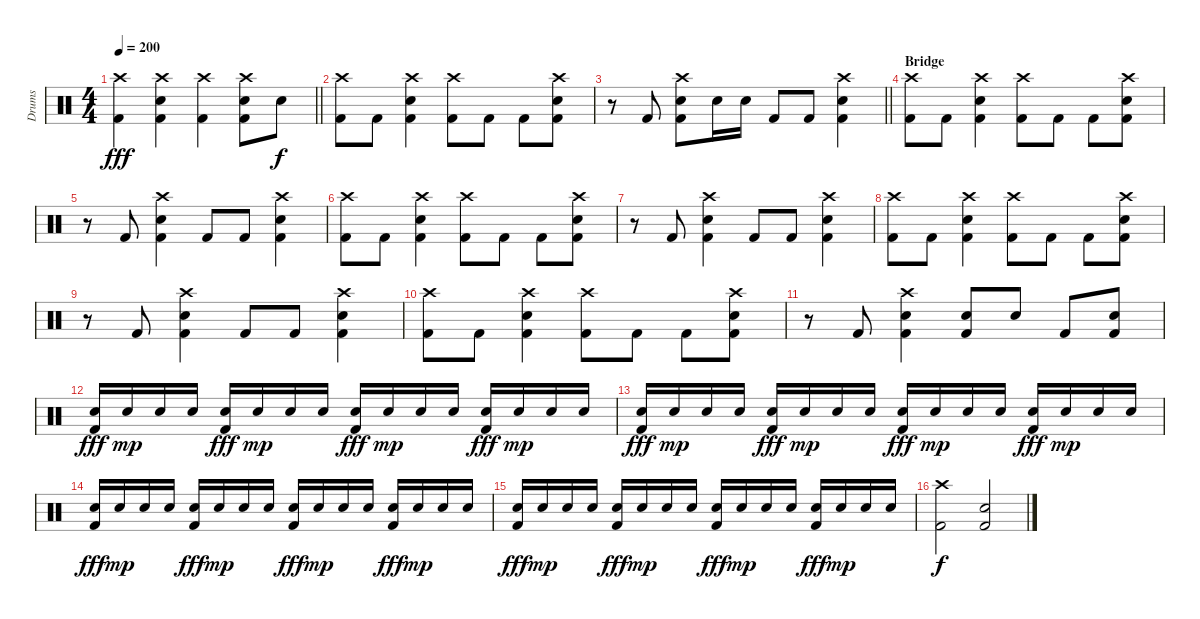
\track ("Drums" "Drums") {instrument percussion}
\staff {score}
\articulation defaults
\ts (4 4)
\tempo 200
\clef neutral
\barLineRight lightlight
\ks c
("Crash high (hit)" "Kick (hit) 2").4{dy fff} ("Crash high (hit)" "Snare (hit) 2" "Kick (hit) 2").4 ("Crash high (hit)" "Kick (hit) 2").4 ("Crash high (hit)" "Snare (hit) 2" "Kick (hit) 2").8 "Snare (hit) 2".8{dy f} |
("Crash high (hit)" "Kick (hit) 2").8 "Kick (hit) 2".8 ("Crash high (hit)" "Snare (hit) 2" "Kick (hit) 2").4 ("Crash high (hit)" "Kick (hit) 2").8 "Kick (hit) 2".8 "Kick (hit) 2".8 ("Crash high (hit)" "Snare (hit) 2" "Kick (hit) 2").8 |
\barLineRight lightlight
r.8 "Kick (hit) 2".8 ("Crash high (hit)" "Snare (hit) 2" "Kick (hit) 2").8 "Snare (hit) 2".16 "Snare (hit) 2".16 "Kick (hit) 2".8 "Kick (hit) 2".8 ("Crash high (hit)" "Snare (hit) 2" "Kick (hit) 2").4 |
\section ("" "Bridge")
("Crash high (hit)" "Kick (hit) 2").8 "Kick (hit) 2".8 ("Crash high (hit)" "Snare (hit) 2" "Kick (hit) 2").4 ("Crash high (hit)" "Kick (hit) 2").8 "Kick (hit) 2".8 "Kick (hit) 2".8 ("Crash high (hit)" "Snare (hit) 2" "Kick (hit) 2").8 |
r.8 "Kick (hit) 2".8 ("Crash high (hit)" "Snare (hit) 2" "Kick (hit) 2").4 "Kick (hit) 2".8 "Kick (hit) 2".8 ("Crash high (hit)" "Snare (hit) 2" "Kick (hit) 2").4 |
("Crash high (hit)" "Kick (hit) 2").8 "Kick (hit) 2".8 ("Crash high (hit)" "Snare (hit) 2" "Kick (hit) 2").4 ("Crash high (hit)" "Kick (hit) 2").8 "Kick (hit) 2".8 "Kick (hit) 2".8 ("Crash high (hit)" "Snare (hit) 2" "Kick (hit) 2").8 |
r.8 "Kick (hit) 2".8 ("Crash high (hit)" "Snare (hit) 2" "Kick (hit) 2").4 "Kick (hit) 2".8 "Kick (hit) 2".8 ("Crash high (hit)" "Snare (hit) 2" "Kick (hit) 2").4 |
("Crash high (hit)" "Kick (hit) 2").8 "Kick (hit) 2".8 ("Crash high (hit)" "Snare (hit) 2" "Kick (hit) 2").4 ("Crash high (hit)" "Kick (hit) 2").8 "Kick (hit) 2".8 "Kick (hit) 2".8 ("Crash high (hit)" "Snare (hit) 2" "Kick (hit) 2").8 |
r.8 "Kick (hit) 2".8 ("Crash high (hit)" "Snare (hit) 2" "Kick (hit) 2").4 "Kick (hit) 2".8 "Kick (hit) 2".8 ("Crash high (hit)" "Snare (hit) 2" "Kick (hit) 2").4 |
("Crash high (hit)" "Kick (hit) 2").8 "Kick (hit) 2".8 ("Crash high (hit)" "Snare (hit) 2" "Kick (hit) 2").4 ("Crash high (hit)" "Kick (hit) 2").8 "Kick (hit) 2".8 "Kick (hit) 2".8 ("Crash high (hit)" "Snare (hit) 2" "Kick (hit) 2").8 |
r.8 "Kick (hit) 2".8 ("Crash high (hit)" "Snare (hit) 2" "Kick (hit) 2").4 ("Snare (hit) 2" "Kick (hit) 2").8 "Snare (hit) 2".8 "Kick (hit) 2".8 ("Snare (hit) 2" "Kick (hit) 2").8 |
("Snare (hit) 2" "Kick (hit) 2").16{dy fff} "Snare (hit) 2".16{dy mp} "Snare (hit) 2".16 "Snare (hit) 2".16 ("Snare (hit) 2" "Kick (hit) 2").16{dy fff} "Snare (hit) 2".16{dy mp} "Snare (hit) 2".16 "Snare (hit) 2".16 ("Snare (hit) 2" "Kick (hit) 2").16{dy fff} "Snare (hit) 2".16{dy mp} "Snare (hit) 2".16 "Snare (hit) 2".16 ("Snare (hit) 2" "Kick (hit) 2").16{dy fff} "Snare (hit) 2".16{dy mp} "Snare (hit) 2".16 "Snare (hit) 2".16 |
("Snare (hit) 2" "Kick (hit) 2").16{dy fff} "Snare (hit) 2".16{dy mp} "Snare (hit) 2".16 "Snare (hit) 2".16 ("Snare (hit) 2" "Kick (hit) 2").16{dy fff} "Snare (hit) 2".16{dy mp} "Snare (hit) 2".16 "Snare (hit) 2".16 ("Snare (hit) 2" "Kick (hit) 2").16{dy fff} "Snare (hit) 2".16{dy mp} "Snare (hit) 2".16 "Snare (hit) 2".16 ("Snare (hit) 2" "Kick (hit) 2").16{dy fff} "Snare (hit) 2".16{dy mp} "Snare (hit) 2".16 "Snare (hit) 2".16 |
("Snare (hit) 2" "Kick (hit) 2").16{dy fff} "Snare (hit) 2".16{dy mp} "Snare (hit) 2".16 "Snare (hit) 2".16 ("Snare (hit) 2" "Kick (hit) 2").16{dy fff} "Snare (hit) 2".16{dy mp} "Snare (hit) 2".16 "Snare (hit) 2".16 ("Snare (hit) 2" "Kick (hit) 2").16{dy fff} "Snare (hit) 2".16{dy mp} "Snare (hit) 2".16 "Snare (hit) 2".16 ("Snare (hit) 2" "Kick (hit) 2").16{dy fff} "Snare (hit) 2".16{dy mp} "Snare (hit) 2".16 "Snare (hit) 2".16 |
("Snare (hit) 2" "Kick (hit) 2").16{dy fff} "Snare (hit) 2".16{dy mp} "Snare (hit) 2".16 "Snare (hit) 2".16 ("Snare (hit) 2" "Kick (hit) 2").16{dy fff} "Snare (hit) 2".16{dy mp} "Snare (hit) 2".16 "Snare (hit) 2".16 ("Snare (hit) 2" "Kick (hit) 2").16{dy fff} "Snare (hit) 2".16{dy mp} "Snare (hit) 2".16 "Snare (hit) 2".16 ("Snare (hit) 2" "Kick (hit) 2").16{dy fff} "Snare (hit) 2".16{dy mp} "Snare (hit) 2".16 "Snare (hit) 2".16 |
("Crash high (hit)" "Kick (hit) 2").2{dy f} ("Snare (hit) 2" "Kick (hit) 2").2
